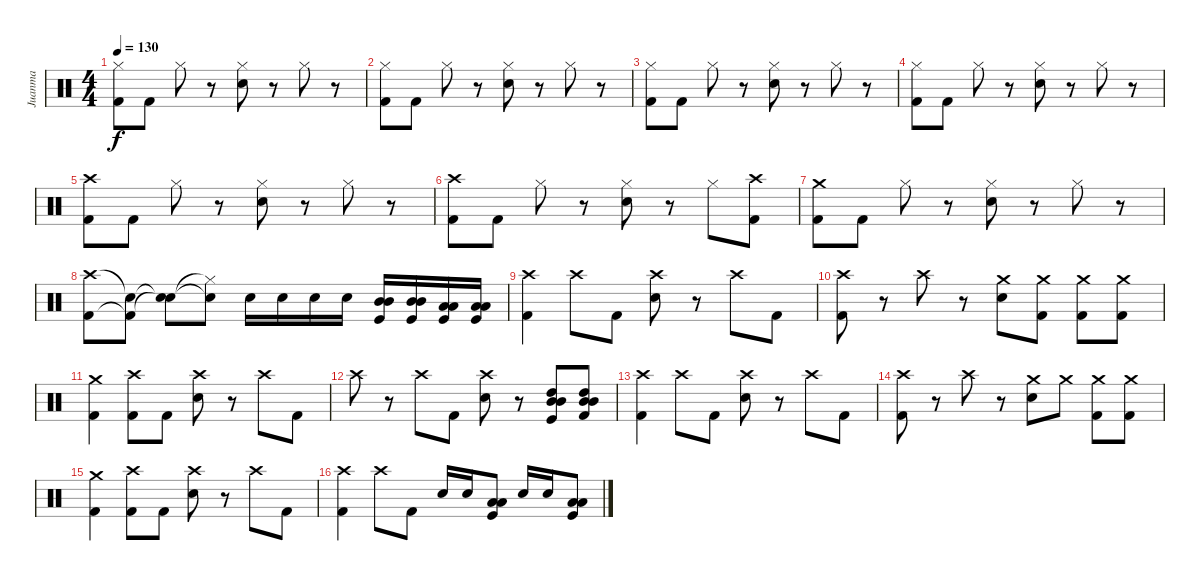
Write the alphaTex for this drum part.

\track ("Juanma" "Juanma") {instrument percussion}
\staff {score}
\articulation defaults
\ts (4 4)
\tempo 130
\clef neutral
\ks c
("Hi-Hat (closed)" "Kick (hit) 2").8{dy f} "Kick (hit) 2".8 "Hi-Hat (closed)".8 r.8 ("Hi-Hat (closed)" "Electric Snare (hit)").8 r.8 "Hi-Hat (closed)".8 r.8 |
("Hi-Hat (closed)" "Kick (hit) 2").8 "Kick (hit) 2".8 "Hi-Hat (closed)".8 r.8 ("Hi-Hat (closed)" "Electric Snare (hit)").8 r.8 "Hi-Hat (closed)".8 r.8 |
("Hi-Hat (closed)" "Kick (hit) 2").8 "Kick (hit) 2".8 "Hi-Hat (closed)".8 r.8 ("Hi-Hat (closed)" "Electric Snare (hit)").8 r.8 "Hi-Hat (closed)".8 r.8 |
("Hi-Hat (closed)" "Kick (hit) 2").8 "Kick (hit) 2".8 "Hi-Hat (closed)".8 r.8 ("Hi-Hat (closed)" "Electric Snare (hit)").8 r.8 "Hi-Hat (closed)".8 r.8 |
("Crash high (hit)" "Kick (hit) 2").8 "Kick (hit) 2".8 "Hi-Hat (closed)".8 r.8 ("Hi-Hat (closed)" "Electric Snare (hit)").8 r.8 "Hi-Hat (closed)".8 r.8 |
("Crash high (hit)" "Kick (hit) 2").8 "Kick (hit) 2".8 "Hi-Hat (closed)".8 r.8 ("Hi-Hat (closed)" "Electric Snare (hit)").8 r.8 "Hi-Hat (closed)".8 ("Crash high (hit)" "Kick (hit) 2").8 |
("Crash medium (hit)" "Kick (hit) 2").8 "Kick (hit) 2".8 "Hi-Hat (closed)".8 r.8 ("Hi-Hat (closed)" "Electric Snare (hit)").8 r.8 "Hi-Hat (closed)".8 r.8 |
("Crash high (hit)" "Kick (hit) 2").8 ("Snare (hit)"{t} "Kick (hit) 2"{t}).8 ("Snare (hit)"{t} "Snare (hit)"{t}).8 ("Hi-Hat (closed)"{t} "Snare (hit)"{t}).8 "Electric Snare (hit)".16 "Electric Snare (hit)".16 "Electric Snare (hit)".16 "Electric Snare (hit)".16 ("Kick (hit)" "Mid Tom (hit)" "Mid Tom (hit)").16 ("Kick (hit)" "Mid Tom (hit)" "Mid Tom (hit)").16 ("Kick (hit)" "Low Tom (hit)" "Low Tom (hit)").16 ("Kick (hit)" "Low Tom (hit)" "Low Tom (hit)").16 |
("Crash high (hit)" "Kick (hit) 2").4 "Crash high (hit)".8 "Kick (hit) 2".8 ("Crash high (hit)" "Electric Snare (hit)").8 r.8 "Crash high (hit)".8 "Kick (hit) 2".8 |
("Crash high (hit)" "Kick (hit) 2").8 r.8 "Crash high (hit)".8 r.8 ("Crash medium (hit)" "Electric Snare (hit)").8 ("Crash medium (hit)" "Kick (hit) 2").8 ("Crash medium (hit)" "Kick (hit) 2").8 ("Crash medium (hit)" "Kick (hit) 2").8 |
("Crash medium (hit)" "Kick (hit) 2").4 ("Crash high (hit)" "Kick (hit) 2").8 "Kick (hit) 2".8 ("Crash high (hit)" "Electric Snare (hit)").8 r.8 "Crash high (hit)".8 "Kick (hit) 2".8 |
"Crash high (hit)".8 r.8 "Crash high (hit)".8 "Kick (hit) 2".8 ("Crash high (hit)" "Electric Snare (hit)").8 r.8 ("Kick (hit)" "Mid Tom (hit)" "Mid Tom (hit)" "High Tom (hit)").8 ("Kick (hit) 2" "Mid Tom (hit)" "Mid Tom (hit)" "High Tom (hit)").8 |
("Crash high (hit)" "Kick (hit) 2").4 "Crash high (hit)".8 "Kick (hit) 2".8 ("Crash high (hit)" "Electric Snare (hit)").8 r.8 "Crash high (hit)".8 "Kick (hit) 2".8 |
("Crash high (hit)" "Kick (hit) 2").8 r.8 "Crash high (hit)".8 r.8 ("Crash medium (hit)" "Electric Snare (hit)").8 "Crash medium (hit)".8 ("Crash medium (hit)" "Kick (hit) 2").8 ("Crash medium (hit)" "Kick (hit) 2").8 |
("Crash medium (hit)" "Kick (hit) 2").4 ("Crash high (hit)" "Kick (hit) 2").8 "Kick (hit) 2".8 ("Crash high (hit)" "Electric Snare (hit)").8 r.8 "Crash high (hit)".8 "Kick (hit) 2".8 |
("Crash high (hit)" "Kick (hit) 2").4 "Crash high (hit)".8 "Kick (hit) 2".8 "Electric Snare (hit)".16 "Electric Snare (hit)".16 ("Kick (hit)" "Low Tom (hit)" "Low Tom (hit)").8 "Electric Snare (hit)".16 "Electric Snare (hit)".16 ("Kick (hit)" "Low Tom (hit)" "Low Tom (hit)").8
